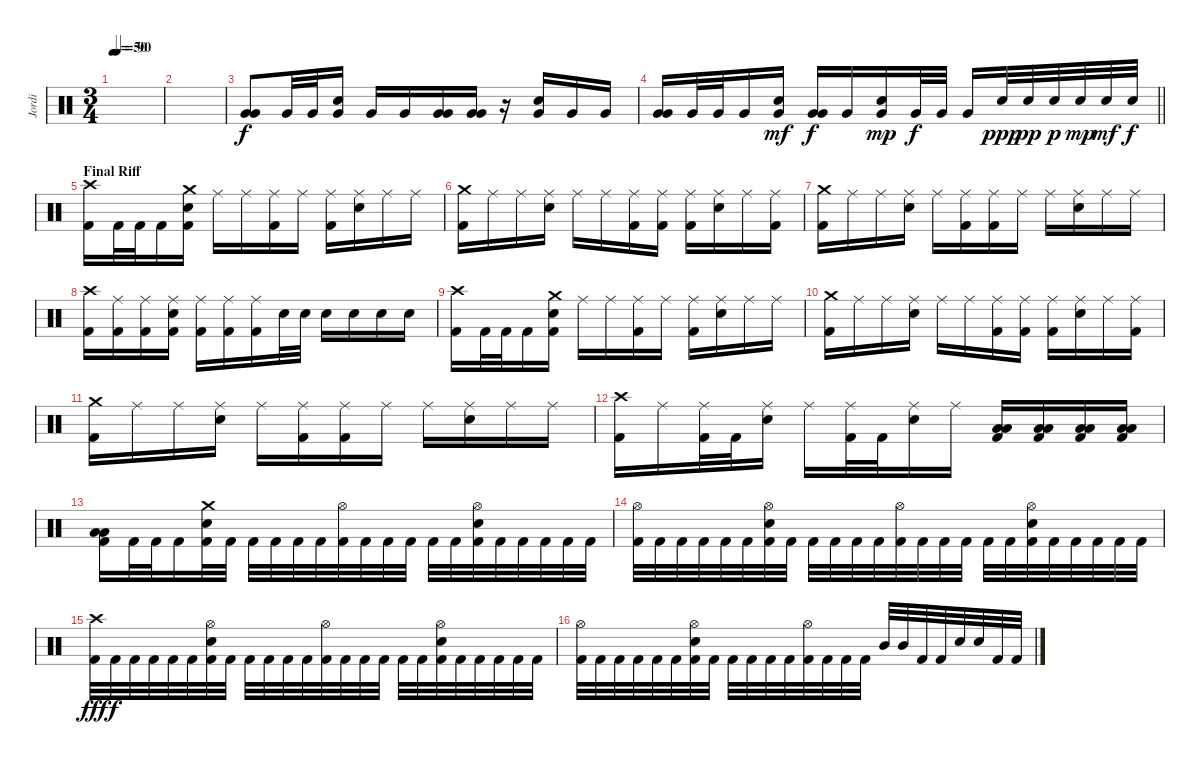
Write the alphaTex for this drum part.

\track ("Jordi" "Jordi") {instrument percussion}
\staff {score}
\articulation defaults
\ts (3 4)
\tempo 50
\tempo (90 0.08333333333333333)
\clef neutral
\ks c
|
|
("Very Low Tom (hit)" "Very Low Tom (hit)").8{volume 8} "Very Low Tom (hit)".32 "Very Low Tom (hit)".32 ("Very Low Tom (hit)" "Snare (hit) 2").16 "Very Low Tom (hit)".16 "Very Low Tom (hit)".16 ("Very Low Tom (hit)" "Very Low Tom (hit)").16 ("Very Low Tom (hit)" "Very Low Tom (hit)").16 r.16 ("Very Low Tom (hit)" "Snare (hit) 2").16 "Very Low Tom (hit)".16 "Very Low Tom (hit)".16 |
\barLineRight lightlight
("Very Low Tom (hit)" "Very Low Tom (hit)").16{volume 12} "Very Low Tom (hit)".32 "Very Low Tom (hit)".32 "Very Low Tom (hit)".16 ("Very Low Tom (hit)" "Snare (hit) 2").16{dy mf} ("Very Low Tom (hit)" "Very Low Tom (hit)").16{dy f} "Very Low Tom (hit)".16 ("Very Low Tom (hit)" "Snare (hit) 2").16{dy mp} "Very Low Tom (hit)".32{dy f} "Very Low Tom (hit)".32 "Very Low Tom (hit)".16{volume 9} "Snare (hit) 2".32{dy ppp volume 13} "Snare (hit) 2".32{dy pp} "Snare (hit) 2".32{dy p} "Snare (hit) 2".32{dy mp} "Snare (hit) 2".32{dy mf} "Snare (hit) 2".32{dy f} |
\section ("" "Final Riff")
("Crash high (hit)" "Kick (hit) 2").16{volume 13} "Kick (hit) 2".32 "Kick (hit) 2".32 "Kick (hit) 2".16 ("Crash medium (hit)" "Snare (hit) 2" "Kick (hit) 2").16 "Ride (middle)".16 "Ride (middle)".16 ("Ride (middle)" "Kick (hit) 2").16 "Ride (middle)".16 ("Ride (middle)" "Kick (hit) 2").16 ("Ride (middle)" "Snare (hit) 2").16 "Ride (middle)".16 "Ride (middle)".16 |
("Crash medium (hit)" "Kick (hit) 2").16 "Ride (middle)".16 "Ride (middle)".16 ("Ride (middle)" "Snare (hit) 2").16 "Ride (middle)".16 "Ride (middle)".16 ("Ride (middle)" "Kick (hit) 2").16 ("Ride (middle)" "Kick (hit) 2").16 ("Ride (middle)" "Kick (hit) 2").16 ("Ride (middle)" "Snare (hit) 2").16 "Ride (middle)".16 ("Ride (middle)" "Kick (hit) 2").16 |
("Crash medium (hit)" "Kick (hit) 2").16 "Ride (middle)".16 "Ride (middle)".16 ("Ride (middle)" "Snare (hit) 2").16 "Ride (middle)".16 ("Ride (middle)" "Kick (hit) 2").16 ("Ride (middle)" "Kick (hit) 2").16 "Ride (middle)".16 "Ride (middle)".16 ("Ride (middle)" "Snare (hit) 2").16 "Ride (middle)".16 "Ride (middle)".16 |
("Crash high (hit)" "Kick (hit) 2").16 ("Ride (middle)" "Kick (hit) 2").16 ("Ride (middle)" "Kick (hit) 2").16 ("Ride (middle)" "Snare (hit) 2" "Kick (hit) 2").16 ("Ride (middle)" "Kick (hit) 2").16 ("Ride (middle)" "Kick (hit) 2").16 ("Ride (middle)" "Kick (hit) 2").16 "Snare (hit) 2".32 "Snare (hit) 2".32 "Snare (hit) 2".16 "Snare (hit) 2".16 "Snare (hit) 2".16 "Snare (hit) 2".16 |
("Crash high (hit)" "Kick (hit) 2").16 "Kick (hit) 2".32 "Kick (hit) 2".32 "Kick (hit) 2".16 ("Crash medium (hit)" "Snare (hit) 2" "Kick (hit) 2").16 "Ride (middle)".16 "Ride (middle)".16 ("Ride (middle)" "Kick (hit) 2").16 "Ride (middle)".16 ("Ride (middle)" "Kick (hit) 2").16 ("Ride (middle)" "Snare (hit) 2").16 "Ride (middle)".16 "Ride (middle)".16 |
("Crash medium (hit)" "Kick (hit) 2").16 "Ride (middle)".16 "Ride (middle)".16 ("Ride (middle)" "Snare (hit) 2").16 "Ride (middle)".16 "Ride (middle)".16 ("Ride (middle)" "Kick (hit) 2").16 ("Ride (middle)" "Kick (hit) 2").16 ("Ride (middle)" "Kick (hit) 2").16 ("Ride (middle)" "Snare (hit) 2").16 "Ride (middle)".16 ("Ride (middle)" "Kick (hit) 2").16 |
("Crash medium (hit)" "Kick (hit) 2").16 "Ride (middle)".16 "Ride (middle)".16 ("Ride (middle)" "Snare (hit) 2").16 "Ride (middle)".16 ("Ride (middle)" "Kick (hit) 2").16 ("Ride (middle)" "Kick (hit) 2").16 "Ride (middle)".16 "Ride (middle)".16 ("Ride (middle)" "Snare (hit) 2").16 "Ride (middle)".16 "Ride (middle)".16 |
("Crash high (hit)" "Kick (hit) 2").16 "Ride (middle)".16 ("Ride (middle)" "Kick (hit) 2").32 "Kick (hit) 2".32 ("Ride (middle)" "Snare (hit) 2").16 "Ride (middle)".16 ("Ride (middle)" "Kick (hit) 2").32 "Kick (hit) 2".32 ("Ride (middle)" "Snare (hit) 2").16 "Ride (middle)".16 ("Low Tom (hit)" "Low Tom (hit)" "Kick (hit) 2").16 ("Low Tom (hit)" "Low Tom (hit)" "Kick (hit) 2").16 ("Low Tom (hit)" "Low Tom (hit)" "Kick (hit) 2").16 ("Low Tom (hit)" "Low Tom (hit)" "Kick (hit) 2").16 |
("Low Tom (hit)" "Low Tom (hit)" "Kick (hit) 2").16 "Kick (hit) 2".32 "Kick (hit) 2".32 "Kick (hit) 2".16 ("Crash medium (hit)" "Snare (hit) 2" "Kick (hit) 2").32 "Kick (hit) 2".32 "Kick (hit) 2".32 "Kick (hit) 2".32 "Kick (hit) 2".32 "Kick (hit) 2".32 ("Hi-Hat (open)" "Kick (hit) 2").32 "Kick (hit) 2".32 "Kick (hit) 2".32 "Kick (hit) 2".32 "Kick (hit) 2".32 "Kick (hit) 2".32 ("Hi-Hat (open)" "Snare (hit) 2" "Kick (hit) 2").32 "Kick (hit) 2".32 "Kick (hit) 2".32 "Kick (hit) 2".32 "Kick (hit) 2".32 "Kick (hit) 2".32 |
("Hi-Hat (open)" "Kick (hit) 2").32 "Kick (hit) 2".32 "Kick (hit) 2".32 "Kick (hit) 2".32 "Kick (hit) 2".32 "Kick (hit) 2".32 ("Hi-Hat (open)" "Snare (hit) 2" "Kick (hit) 2").32 "Kick (hit) 2".32 "Kick (hit) 2".32 "Kick (hit) 2".32 "Kick (hit) 2".32 "Kick (hit) 2".32 ("Hi-Hat (open)" "Kick (hit) 2").32 "Kick (hit) 2".32 "Kick (hit) 2".32 "Kick (hit) 2".32 "Kick (hit) 2".32 "Kick (hit) 2".32 ("Hi-Hat (open)" "Snare (hit) 2" "Kick (hit) 2").32 "Kick (hit) 2".32 "Kick (hit) 2".32 "Kick (hit) 2".32 "Kick (hit) 2".32 "Kick (hit) 2".32 |
("Crash high (hit)" "Kick (hit) 2").32{dy fff} "Kick (hit) 2".32{dy f} "Kick (hit) 2".32 "Kick (hit) 2".32 "Kick (hit) 2".32 "Kick (hit) 2".32 ("Hi-Hat (open)" "Snare (hit) 2" "Kick (hit) 2").32 "Kick (hit) 2".32 "Kick (hit) 2".32 "Kick (hit) 2".32 "Kick (hit) 2".32 "Kick (hit) 2".32 ("Hi-Hat (open)" "Kick (hit) 2").32 "Kick (hit) 2".32 "Kick (hit) 2".32 "Kick (hit) 2".32 "Kick (hit) 2".32 "Kick (hit) 2".32 ("Hi-Hat (open)" "Snare (hit) 2" "Kick (hit) 2").32 "Kick (hit) 2".32 "Kick (hit) 2".32 "Kick (hit) 2".32 "Kick (hit) 2".32 "Kick (hit) 2".32 |
("Hi-Hat (open)" "Kick (hit) 2").32 "Kick (hit) 2".32 "Kick (hit) 2".32 "Kick (hit) 2".32 "Kick (hit) 2".32 "Kick (hit) 2".32 ("Hi-Hat (open)" "Snare (hit) 2" "Kick (hit) 2").32 "Kick (hit) 2".32 "Kick (hit) 2".32 "Kick (hit) 2".32 "Kick (hit) 2".32 "Kick (hit) 2".32 ("Hi-Hat (open)" "Kick (hit) 2").32 "Kick (hit) 2".32 "Kick (hit) 2".32 "Kick (hit) 2".32 "Mid Tom (hit)".32 "Mid Tom (hit)".32 "Kick (hit) 2".32 "Kick (hit) 2".32 "Snare (hit) 2".32 "Snare (hit) 2".32 "Kick (hit) 2".32 "Kick (hit) 2".32
